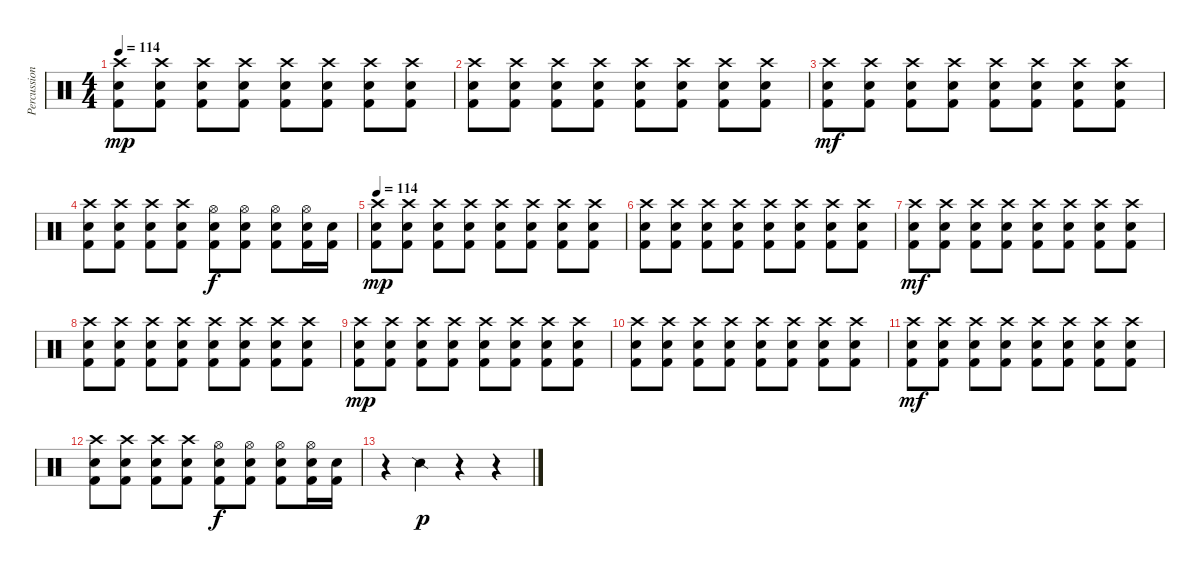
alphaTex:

\track ("Percussion" "Percussion") {instrument percussion}
\staff {score}
\articulation defaults
\ts (4 4)
\tempo 114
\clef neutral
\ks c
("Crash high (hit)" "Electric Snare (hit)" "Kick (hit) 2").8{dy mp} ("Crash high (hit)" "Electric Snare (hit)" "Kick (hit) 2").8 ("Crash high (hit)" "Electric Snare (hit)" "Kick (hit) 2").8 ("Crash high (hit)" "Electric Snare (hit)" "Kick (hit) 2").8 ("Crash high (hit)" "Electric Snare (hit)" "Kick (hit) 2").8 ("Crash high (hit)" "Electric Snare (hit)" "Kick (hit) 2").8 ("Crash high (hit)" "Electric Snare (hit)" "Kick (hit) 2").8 ("Crash high (hit)" "Electric Snare (hit)" "Kick (hit) 2").8 |
("Crash high (hit)" "Electric Snare (hit)" "Kick (hit) 2").8 ("Crash high (hit)" "Electric Snare (hit)" "Kick (hit) 2").8 ("Crash high (hit)" "Electric Snare (hit)" "Kick (hit) 2").8 ("Crash high (hit)" "Electric Snare (hit)" "Kick (hit) 2").8 ("Crash high (hit)" "Electric Snare (hit)" "Kick (hit) 2").8 ("Crash high (hit)" "Electric Snare (hit)" "Kick (hit) 2").8 ("Crash high (hit)" "Electric Snare (hit)" "Kick (hit) 2").8 ("Crash high (hit)" "Electric Snare (hit)" "Kick (hit) 2").8 |
("Crash high (hit)" "Electric Snare (hit)" "Kick (hit) 2").8{dy mf} ("Crash high (hit)" "Electric Snare (hit)" "Kick (hit) 2").8 ("Crash high (hit)" "Electric Snare (hit)" "Kick (hit) 2").8 ("Crash high (hit)" "Electric Snare (hit)" "Kick (hit) 2").8 ("Crash high (hit)" "Electric Snare (hit)" "Kick (hit) 2").8 ("Crash high (hit)" "Electric Snare (hit)" "Kick (hit) 2").8 ("Crash high (hit)" "Electric Snare (hit)" "Kick (hit) 2").8 ("Crash high (hit)" "Electric Snare (hit)" "Kick (hit) 2").8 |
("Crash high (hit)" "Electric Snare (hit)" "Kick (hit) 2").8 ("Crash high (hit)" "Electric Snare (hit)" "Kick (hit) 2").8 ("Crash high (hit)" "Electric Snare (hit)" "Kick (hit) 2").8 ("Crash high (hit)" "Electric Snare (hit)" "Kick (hit) 2").8 ("Hi-Hat (open)" "Electric Snare (hit)" "Kick (hit) 2").8{dy f} ("Hi-Hat (open)" "Electric Snare (hit)" "Kick (hit) 2").8 ("Hi-Hat (open)" "Electric Snare (hit)" "Kick (hit) 2").8 ("Hi-Hat (open)" "Electric Snare (hit)" "Kick (hit) 2").16 ("Snare (hit) 2" "Kick (hit) 2").16 |
\tempo 114
("Crash high (hit)" "Electric Snare (hit)" "Kick (hit) 2").8{dy mp} ("Crash high (hit)" "Electric Snare (hit)" "Kick (hit) 2").8 ("Crash high (hit)" "Electric Snare (hit)" "Kick (hit) 2").8 ("Crash high (hit)" "Electric Snare (hit)" "Kick (hit) 2").8 ("Crash high (hit)" "Electric Snare (hit)" "Kick (hit) 2").8 ("Crash high (hit)" "Electric Snare (hit)" "Kick (hit) 2").8 ("Crash high (hit)" "Electric Snare (hit)" "Kick (hit) 2").8 ("Crash high (hit)" "Electric Snare (hit)" "Kick (hit) 2").8 |
("Crash high (hit)" "Electric Snare (hit)" "Kick (hit) 2").8 ("Crash high (hit)" "Electric Snare (hit)" "Kick (hit) 2").8 ("Crash high (hit)" "Electric Snare (hit)" "Kick (hit) 2").8 ("Crash high (hit)" "Electric Snare (hit)" "Kick (hit) 2").8 ("Crash high (hit)" "Electric Snare (hit)" "Kick (hit) 2").8 ("Crash high (hit)" "Electric Snare (hit)" "Kick (hit) 2").8 ("Crash high (hit)" "Electric Snare (hit)" "Kick (hit) 2").8 ("Crash high (hit)" "Electric Snare (hit)" "Kick (hit) 2").8 |
("Crash high (hit)" "Electric Snare (hit)" "Kick (hit) 2").8{dy mf} ("Crash high (hit)" "Electric Snare (hit)" "Kick (hit) 2").8 ("Crash high (hit)" "Electric Snare (hit)" "Kick (hit) 2").8 ("Crash high (hit)" "Electric Snare (hit)" "Kick (hit) 2").8 ("Crash high (hit)" "Electric Snare (hit)" "Kick (hit) 2").8 ("Crash high (hit)" "Electric Snare (hit)" "Kick (hit) 2").8 ("Crash high (hit)" "Electric Snare (hit)" "Kick (hit) 2").8 ("Crash high (hit)" "Electric Snare (hit)" "Kick (hit) 2").8 |
("Crash high (hit)" "Electric Snare (hit)" "Kick (hit) 2").8 ("Crash high (hit)" "Electric Snare (hit)" "Kick (hit) 2").8 ("Crash high (hit)" "Electric Snare (hit)" "Kick (hit) 2").8 ("Crash high (hit)" "Electric Snare (hit)" "Kick (hit) 2").8 ("Crash high (hit)" "Electric Snare (hit)" "Kick (hit) 2").8 ("Crash high (hit)" "Electric Snare (hit)" "Kick (hit) 2").8 ("Crash high (hit)" "Electric Snare (hit)" "Kick (hit) 2").8 ("Crash high (hit)" "Electric Snare (hit)" "Kick (hit) 2").8 |
("Crash high (hit)" "Electric Snare (hit)" "Kick (hit) 2").8{dy mp} ("Crash high (hit)" "Electric Snare (hit)" "Kick (hit) 2").8 ("Crash high (hit)" "Electric Snare (hit)" "Kick (hit) 2").8 ("Crash high (hit)" "Electric Snare (hit)" "Kick (hit) 2").8 ("Crash high (hit)" "Electric Snare (hit)" "Kick (hit) 2").8 ("Crash high (hit)" "Electric Snare (hit)" "Kick (hit) 2").8 ("Crash high (hit)" "Electric Snare (hit)" "Kick (hit) 2").8 ("Crash high (hit)" "Electric Snare (hit)" "Kick (hit) 2").8 |
("Crash high (hit)" "Electric Snare (hit)" "Kick (hit) 2").8 ("Crash high (hit)" "Electric Snare (hit)" "Kick (hit) 2").8 ("Crash high (hit)" "Electric Snare (hit)" "Kick (hit) 2").8 ("Crash high (hit)" "Electric Snare (hit)" "Kick (hit) 2").8 ("Crash high (hit)" "Electric Snare (hit)" "Kick (hit) 2").8 ("Crash high (hit)" "Electric Snare (hit)" "Kick (hit) 2").8 ("Crash high (hit)" "Electric Snare (hit)" "Kick (hit) 2").8 ("Crash high (hit)" "Electric Snare (hit)" "Kick (hit) 2").8 |
("Crash high (hit)" "Electric Snare (hit)" "Kick (hit) 2").8{dy mf} ("Crash high (hit)" "Electric Snare (hit)" "Kick (hit) 2").8 ("Crash high (hit)" "Electric Snare (hit)" "Kick (hit) 2").8 ("Crash high (hit)" "Electric Snare (hit)" "Kick (hit) 2").8 ("Crash high (hit)" "Electric Snare (hit)" "Kick (hit) 2").8 ("Crash high (hit)" "Electric Snare (hit)" "Kick (hit) 2").8 ("Crash high (hit)" "Electric Snare (hit)" "Kick (hit) 2").8 ("Crash high (hit)" "Electric Snare (hit)" "Kick (hit) 2").8 |
("Crash high (hit)" "Electric Snare (hit)" "Kick (hit) 2").8 ("Crash high (hit)" "Electric Snare (hit)" "Kick (hit) 2").8 ("Crash high (hit)" "Electric Snare (hit)" "Kick (hit) 2").8 ("Crash high (hit)" "Electric Snare (hit)" "Kick (hit) 2").8 ("Hi-Hat (open)" "Electric Snare (hit)" "Kick (hit) 2").8{dy f} ("Hi-Hat (open)" "Electric Snare (hit)" "Kick (hit) 2").8 ("Hi-Hat (open)" "Electric Snare (hit)" "Kick (hit) 2").8 ("Hi-Hat (open)" "Electric Snare (hit)" "Kick (hit) 2").16 ("Snare (hit) 2" "Kick (hit) 2").16 |
r.4 "Snare (side stick) 2".4{dy p} r.4 r.4
